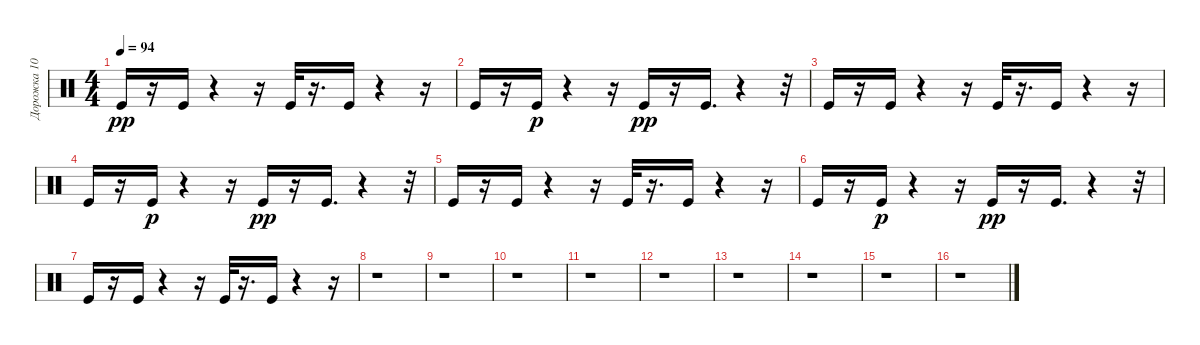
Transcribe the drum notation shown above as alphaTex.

\track ("Дорожка 10" "Дорожка 10") {instrument percussion}
\staff {score}
\articulation defaults
\ts (4 4)
\tempo 94
\clef neutral
\ks c "Kick (hit)".16{dy pp}
r.16 "Kick (hit)".16 r.4 r.16 "Kick (hit)".32 r.16{d} "Kick (hit)".16 r.4 r.16 |
"Kick (hit)".16 r.16 "Kick (hit)".16{dy p} r.4 r.16 "Kick (hit)".16{dy pp} r.16 "Kick (hit)".16{d} r.4 r.32 |
"Kick (hit)".16 r.16 "Kick (hit)".16 r.4 r.16 "Kick (hit)".32 r.16{d} "Kick (hit)".16 r.4 r.16 |
"Kick (hit)".16 r.16 "Kick (hit)".16{dy p} r.4 r.16 "Kick (hit)".16{dy pp} r.16 "Kick (hit)".16{d} r.4 r.32 |
"Kick (hit)".16 r.16 "Kick (hit)".16 r.4 r.16 "Kick (hit)".32 r.16{d} "Kick (hit)".16 r.4 r.16 |
"Kick (hit)".16 r.16 "Kick (hit)".16{dy p} r.4 r.16 "Kick (hit)".16{dy pp} r.16 "Kick (hit)".16{d} r.4 r.32 |
"Kick (hit)".16 r.16 "Kick (hit)".16 r.4 r.16 "Kick (hit)".32 r.16{d} "Kick (hit)".16 r.4 r.16 |
r.1 |
r.1 |
r.1 |
r.1 |
r.1 |
r.1 |
r.1 |
r.1 |
r.1
